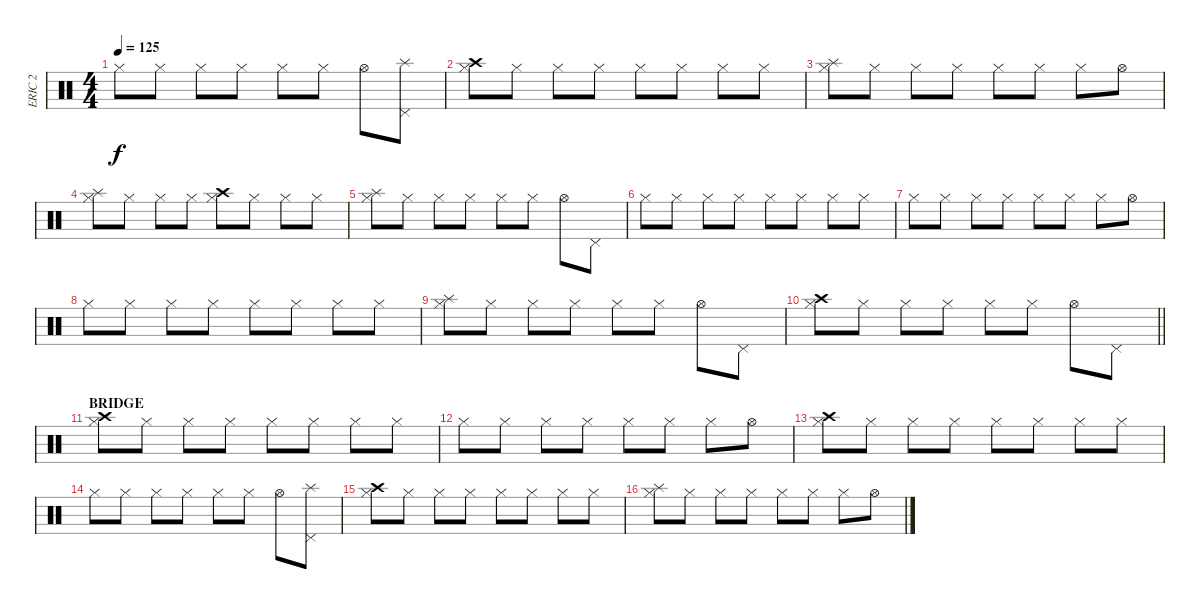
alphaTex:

\track ("ERIC 2" "ERIC 2") {instrument percussion}
\staff {score}
\articulation defaults
\ts (4 4)
\tempo 125
\clef neutral
\ks c "Hi-Hat (closed)".8{dy f} "Hi-Hat (closed)".8 "Hi-Hat (closed)".8 "Hi-Hat (closed)".8 "Hi-Hat (closed)".8 "Hi-Hat (closed)".8 "Hi-Hat (open)".8
("Splash (hit)" "Pedal Hi-Hat (hit)").8 |
("Crash high (hit)" "Hi-Hat (closed)").8 "Hi-Hat (closed)".8 "Hi-Hat (closed)".8 "Hi-Hat (closed)".8 "Hi-Hat (closed)".8 "Hi-Hat (closed)".8 "Hi-Hat (closed)".8 "Hi-Hat (closed)".8 |
("Splash (hit)" "Hi-Hat (closed)").8 "Hi-Hat (closed)".8 "Hi-Hat (closed)".8 "Hi-Hat (closed)".8 "Hi-Hat (closed)".8 "Hi-Hat (closed)".8 "Hi-Hat (closed)".8 "Hi-Hat (open)".8 |
("Splash (hit)" "Hi-Hat (closed)").8 "Hi-Hat (closed)".8 "Hi-Hat (closed)".8 "Hi-Hat (closed)".8 ("Crash high (hit)" "Hi-Hat (closed)").8 "Hi-Hat (closed)".8 "Hi-Hat (closed)".8 "Hi-Hat (closed)".8 |
("Splash (hit)" "Hi-Hat (closed)").8 "Hi-Hat (closed)".8 "Hi-Hat (closed)".8 "Hi-Hat (closed)".8 "Hi-Hat (closed)".8 "Hi-Hat (closed)".8 "Hi-Hat (open)".8 "Pedal Hi-Hat (hit)".8 |
"Hi-Hat (closed)".8 "Hi-Hat (closed)".8 "Hi-Hat (closed)".8 "Hi-Hat (closed)".8 "Hi-Hat (closed)".8 "Hi-Hat (closed)".8 "Hi-Hat (closed)".8 "Hi-Hat (closed)".8 |
"Hi-Hat (closed)".8 "Hi-Hat (closed)".8 "Hi-Hat (closed)".8 "Hi-Hat (closed)".8 "Hi-Hat (closed)".8 "Hi-Hat (closed)".8 "Hi-Hat (closed)".8 "Hi-Hat (open)".8 |
"Hi-Hat (closed)".8 "Hi-Hat (closed)".8 "Hi-Hat (closed)".8 "Hi-Hat (closed)".8 "Hi-Hat (closed)".8 "Hi-Hat (closed)".8 "Hi-Hat (closed)".8 "Hi-Hat (closed)".8 |
("Splash (hit)" "Hi-Hat (closed)").8 "Hi-Hat (closed)".8 "Hi-Hat (closed)".8 "Hi-Hat (closed)".8 "Hi-Hat (closed)".8 "Hi-Hat (closed)".8 "Hi-Hat (open)".8 "Pedal Hi-Hat (hit)".8 |
\barLineRight lightlight
("Crash high (hit)" "Hi-Hat (closed)").8 "Hi-Hat (closed)".8 "Hi-Hat (closed)".8 "Hi-Hat (closed)".8 "Hi-Hat (closed)".8 "Hi-Hat (closed)".8 "Hi-Hat (open)".8 "Pedal Hi-Hat (hit)".8 |
\section ("" "BRIDGE")
("Crash high (hit)" "Hi-Hat (closed)").8 "Hi-Hat (closed)".8 "Hi-Hat (closed)".8 "Hi-Hat (closed)".8 "Hi-Hat (closed)".8 "Hi-Hat (closed)".8 "Hi-Hat (closed)".8 "Hi-Hat (closed)".8 |
"Hi-Hat (closed)".8 "Hi-Hat (closed)".8 "Hi-Hat (closed)".8 "Hi-Hat (closed)".8 "Hi-Hat (closed)".8 "Hi-Hat (closed)".8 "Hi-Hat (closed)".8 "Hi-Hat (open)".8 |
("Crash high (hit)" "Hi-Hat (closed)").8 "Hi-Hat (closed)".8 "Hi-Hat (closed)".8 "Hi-Hat (closed)".8 "Hi-Hat (closed)".8 "Hi-Hat (closed)".8 "Hi-Hat (closed)".8 "Hi-Hat (closed)".8 |
"Hi-Hat (closed)".8 "Hi-Hat (closed)".8 "Hi-Hat (closed)".8 "Hi-Hat (closed)".8 "Hi-Hat (closed)".8 "Hi-Hat (closed)".8 "Hi-Hat (open)".8 ("Splash (hit)" "Pedal Hi-Hat (hit)").8 |
("Crash high (hit)" "Hi-Hat (closed)").8 "Hi-Hat (closed)".8 "Hi-Hat (closed)".8 "Hi-Hat (closed)".8 "Hi-Hat (closed)".8 "Hi-Hat (closed)".8 "Hi-Hat (closed)".8 "Hi-Hat (closed)".8 |
("Splash (hit)" "Hi-Hat (closed)").8 "Hi-Hat (closed)".8 "Hi-Hat (closed)".8 "Hi-Hat (closed)".8 "Hi-Hat (closed)".8 "Hi-Hat (closed)".8 "Hi-Hat (closed)".8 "Hi-Hat (open)".8
